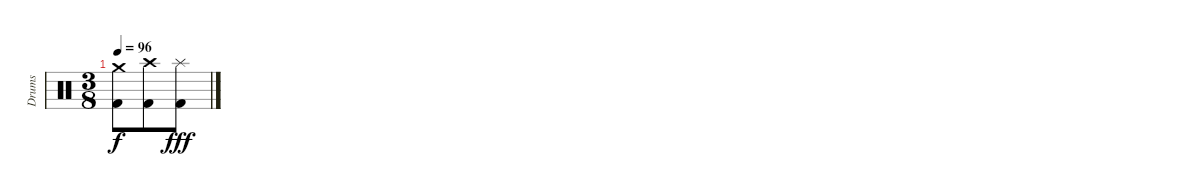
\track ("Drums" "Drums") {instrument percussion}
\staff {score}
\articulation defaults
\ts (3 8)
\tempo 96
\clef neutral
\ks c
("Crash medium (hit)" "Kick (hit) 2").8{dy f} ("Crash high (hit)" "Kick (hit) 2").8 ("Splash (hit)" "Kick (hit) 2").8{dy fff}
